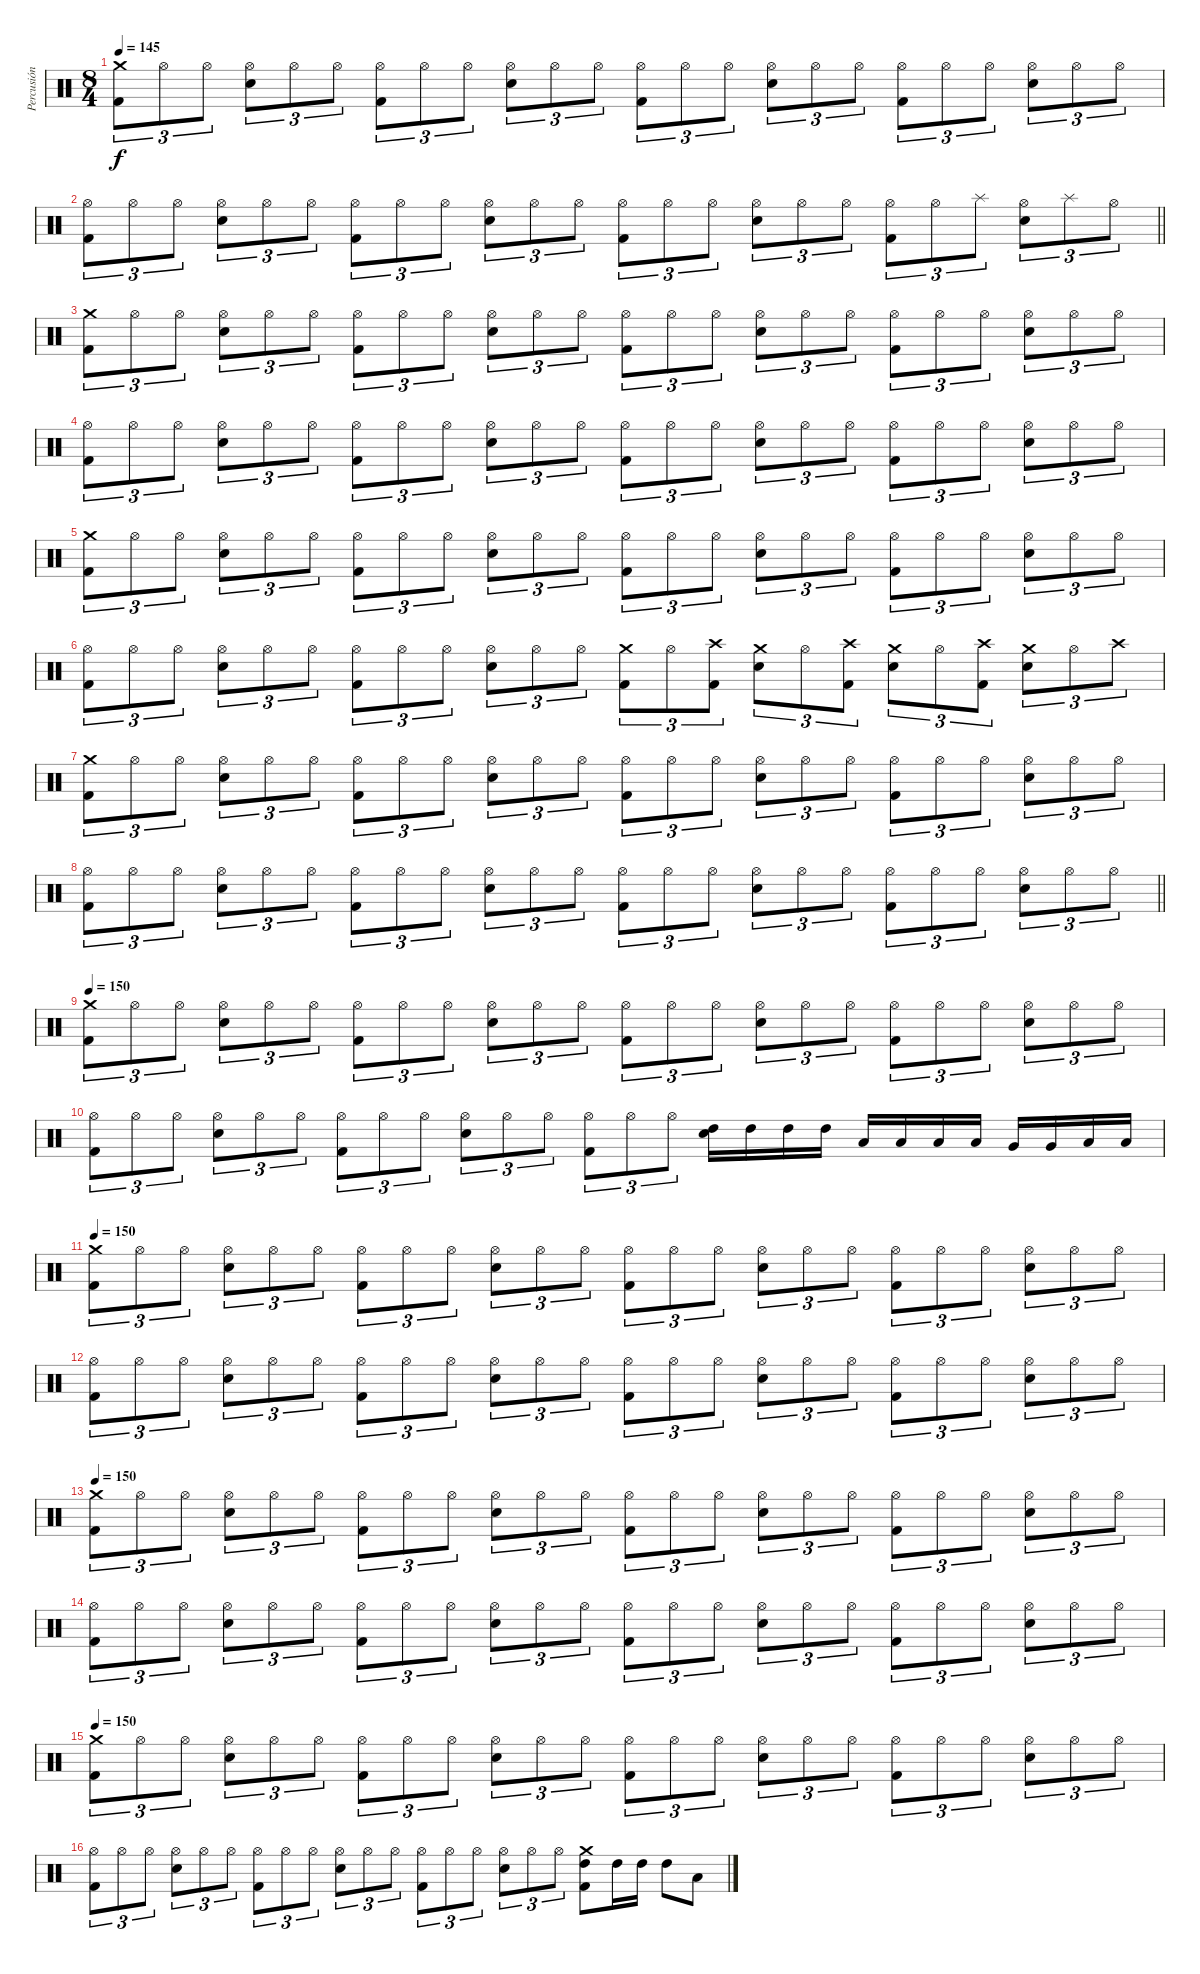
\track ("Percusión" "Percusión") {instrument percussion}
\staff {score}
\articulation defaults
\ts (8 4)
\tempo 145
\clef neutral
\ks c
("Crash medium (hit)" "Kick (hit) 2").8{tu (3 2) dy f} "Hi-Hat (open)".8{tu (3 2)} "Hi-Hat (open)".8{tu (3 2)} ("Hi-Hat (open)" "Electric Snare (hit)").8{tu (3 2)} "Hi-Hat (open)".8{tu (3 2)} "Hi-Hat (open)".8{tu (3 2)} ("Hi-Hat (open)" "Kick (hit) 2").8{tu (3 2)} "Hi-Hat (open)".8{tu (3 2)} "Hi-Hat (open)".8{tu (3 2)} ("Hi-Hat (open)" "Electric Snare (hit)").8{tu (3 2)} "Hi-Hat (open)".8{tu (3 2)} "Hi-Hat (open)".8{tu (3 2)} ("Hi-Hat (open)" "Kick (hit) 2").8{tu (3 2)} "Hi-Hat (open)".8{tu (3 2)} "Hi-Hat (open)".8{tu (3 2)} ("Hi-Hat (open)" "Electric Snare (hit)").8{tu (3 2)} "Hi-Hat (open)".8{tu (3 2)} "Hi-Hat (open)".8{tu (3 2)} ("Hi-Hat (open)" "Kick (hit) 2").8{tu (3 2)} "Hi-Hat (open)".8{tu (3 2)} "Hi-Hat (open)".8{tu (3 2)} ("Hi-Hat (open)" "Electric Snare (hit)").8{tu (3 2)} "Hi-Hat (open)".8{tu (3 2)} "Hi-Hat (open)".8{tu (3 2)} |
\barLineRight lightlight
("Hi-Hat (open)" "Kick (hit) 2").8{tu (3 2)} "Hi-Hat (open)".8{tu (3 2)} "Hi-Hat (open)".8{tu (3 2)} ("Hi-Hat (open)" "Electric Snare (hit)").8{tu (3 2)} "Hi-Hat (open)".8{tu (3 2)} "Hi-Hat (open)".8{tu (3 2)} ("Hi-Hat (open)" "Kick (hit) 2").8{tu (3 2)} "Hi-Hat (open)".8{tu (3 2)} "Hi-Hat (open)".8{tu (3 2)} ("Hi-Hat (open)" "Electric Snare (hit)").8{tu (3 2)} "Hi-Hat (open)".8{tu (3 2)} "Hi-Hat (open)".8{tu (3 2)} ("Hi-Hat (open)" "Kick (hit) 2").8{tu (3 2)} "Hi-Hat (open)".8{tu (3 2)} "Hi-Hat (open)".8{tu (3 2)} ("Hi-Hat (open)" "Electric Snare (hit)").8{tu (3 2)} "Hi-Hat (open)".8{tu (3 2)} "Hi-Hat (open)".8{tu (3 2)} ("Hi-Hat (open)" "Kick (hit) 2").8{tu (3 2)} "Hi-Hat (open)".8{tu (3 2)} "Splash (hit)".8{tu (3 2)} ("Hi-Hat (open)" "Electric Snare (hit)").8{tu (3 2)} "Splash (hit)".8{tu (3 2)} "Hi-Hat (open)".8{tu (3 2)} |
("Crash medium (hit)" "Kick (hit) 2").8{tu (3 2)} "Hi-Hat (open)".8{tu (3 2)} "Hi-Hat (open)".8{tu (3 2)} ("Hi-Hat (open)" "Electric Snare (hit)").8{tu (3 2)} "Hi-Hat (open)".8{tu (3 2)} "Hi-Hat (open)".8{tu (3 2)} ("Hi-Hat (open)" "Kick (hit) 2").8{tu (3 2)} "Hi-Hat (open)".8{tu (3 2)} "Hi-Hat (open)".8{tu (3 2)} ("Hi-Hat (open)" "Electric Snare (hit)").8{tu (3 2)} "Hi-Hat (open)".8{tu (3 2)} "Hi-Hat (open)".8{tu (3 2)} ("Hi-Hat (open)" "Kick (hit) 2").8{tu (3 2)} "Hi-Hat (open)".8{tu (3 2)} "Hi-Hat (open)".8{tu (3 2)} ("Hi-Hat (open)" "Electric Snare (hit)").8{tu (3 2)} "Hi-Hat (open)".8{tu (3 2)} "Hi-Hat (open)".8{tu (3 2)} ("Hi-Hat (open)" "Kick (hit) 2").8{tu (3 2)} "Hi-Hat (open)".8{tu (3 2)} "Hi-Hat (open)".8{tu (3 2)} ("Hi-Hat (open)" "Electric Snare (hit)").8{tu (3 2)} "Hi-Hat (open)".8{tu (3 2)} "Hi-Hat (open)".8{tu (3 2)} |
("Hi-Hat (open)" "Kick (hit) 2").8{tu (3 2)} "Hi-Hat (open)".8{tu (3 2)} "Hi-Hat (open)".8{tu (3 2)} ("Hi-Hat (open)" "Electric Snare (hit)").8{tu (3 2)} "Hi-Hat (open)".8{tu (3 2)} "Hi-Hat (open)".8{tu (3 2)} ("Hi-Hat (open)" "Kick (hit) 2").8{tu (3 2)} "Hi-Hat (open)".8{tu (3 2)} "Hi-Hat (open)".8{tu (3 2)} ("Hi-Hat (open)" "Electric Snare (hit)").8{tu (3 2)} "Hi-Hat (open)".8{tu (3 2)} "Hi-Hat (open)".8{tu (3 2)} ("Hi-Hat (open)" "Kick (hit) 2").8{tu (3 2)} "Hi-Hat (open)".8{tu (3 2)} "Hi-Hat (open)".8{tu (3 2)} ("Hi-Hat (open)" "Electric Snare (hit)").8{tu (3 2)} "Hi-Hat (open)".8{tu (3 2)} "Hi-Hat (open)".8{tu (3 2)} ("Hi-Hat (open)" "Kick (hit) 2").8{tu (3 2)} "Hi-Hat (open)".8{tu (3 2)} "Hi-Hat (open)".8{tu (3 2)} ("Hi-Hat (open)" "Electric Snare (hit)").8{tu (3 2)} "Hi-Hat (open)".8{tu (3 2)} "Hi-Hat (open)".8{tu (3 2)} |
("Crash medium (hit)" "Kick (hit) 2").8{tu (3 2)} "Hi-Hat (open)".8{tu (3 2)} "Hi-Hat (open)".8{tu (3 2)} ("Hi-Hat (open)" "Electric Snare (hit)").8{tu (3 2)} "Hi-Hat (open)".8{tu (3 2)} "Hi-Hat (open)".8{tu (3 2)} ("Hi-Hat (open)" "Kick (hit) 2").8{tu (3 2)} "Hi-Hat (open)".8{tu (3 2)} "Hi-Hat (open)".8{tu (3 2)} ("Hi-Hat (open)" "Electric Snare (hit)").8{tu (3 2)} "Hi-Hat (open)".8{tu (3 2)} "Hi-Hat (open)".8{tu (3 2)} ("Hi-Hat (open)" "Kick (hit) 2").8{tu (3 2)} "Hi-Hat (open)".8{tu (3 2)} "Hi-Hat (open)".8{tu (3 2)} ("Hi-Hat (open)" "Electric Snare (hit)").8{tu (3 2)} "Hi-Hat (open)".8{tu (3 2)} "Hi-Hat (open)".8{tu (3 2)} ("Hi-Hat (open)" "Kick (hit) 2").8{tu (3 2)} "Hi-Hat (open)".8{tu (3 2)} "Hi-Hat (open)".8{tu (3 2)} ("Hi-Hat (open)" "Electric Snare (hit)").8{tu (3 2)} "Hi-Hat (open)".8{tu (3 2)} "Hi-Hat (open)".8{tu (3 2)} |
("Hi-Hat (open)" "Kick (hit) 2").8{tu (3 2)} "Hi-Hat (open)".8{tu (3 2)} "Hi-Hat (open)".8{tu (3 2)} ("Hi-Hat (open)" "Electric Snare (hit)").8{tu (3 2)} "Hi-Hat (open)".8{tu (3 2)} "Hi-Hat (open)".8{tu (3 2)} ("Hi-Hat (open)" "Kick (hit) 2").8{tu (3 2)} "Hi-Hat (open)".8{tu (3 2)} "Hi-Hat (open)".8{tu (3 2)} ("Hi-Hat (open)" "Electric Snare (hit)").8{tu (3 2)} "Hi-Hat (open)".8{tu (3 2)} "Hi-Hat (open)".8{tu (3 2)} ("Crash medium (hit)" "Kick (hit) 2").8{tu (3 2)} "Hi-Hat (open)".8{tu (3 2)} ("Crash high (hit)" "Kick (hit) 2").8{tu (3 2)} ("Crash medium (hit)" "Electric Snare (hit)").8{tu (3 2)} "Hi-Hat (open)".8{tu (3 2)} ("Crash high (hit)" "Kick (hit) 2").8{tu (3 2)} ("Crash medium (hit)" "Electric Snare (hit)").8{tu (3 2)} "Hi-Hat (open)".8{tu (3 2)} ("Crash high (hit)" "Kick (hit) 2").8{tu (3 2)} ("Crash medium (hit)" "Electric Snare (hit)").8{tu (3 2)} "Hi-Hat (open)".8{tu (3 2)} "Crash high (hit)".8{tu (3 2)} |
("Crash medium (hit)" "Kick (hit) 2").8{tu (3 2)} "Hi-Hat (open)".8{tu (3 2)} "Hi-Hat (open)".8{tu (3 2)} ("Hi-Hat (open)" "Electric Snare (hit)").8{tu (3 2)} "Hi-Hat (open)".8{tu (3 2)} "Hi-Hat (open)".8{tu (3 2)} ("Hi-Hat (open)" "Kick (hit) 2").8{tu (3 2)} "Hi-Hat (open)".8{tu (3 2)} "Hi-Hat (open)".8{tu (3 2)} ("Hi-Hat (open)" "Electric Snare (hit)").8{tu (3 2)} "Hi-Hat (open)".8{tu (3 2)} "Hi-Hat (open)".8{tu (3 2)} ("Hi-Hat (open)" "Kick (hit) 2").8{tu (3 2)} "Hi-Hat (open)".8{tu (3 2)} "Hi-Hat (open)".8{tu (3 2)} ("Hi-Hat (open)" "Electric Snare (hit)").8{tu (3 2)} "Hi-Hat (open)".8{tu (3 2)} "Hi-Hat (open)".8{tu (3 2)} ("Hi-Hat (open)" "Kick (hit) 2").8{tu (3 2)} "Hi-Hat (open)".8{tu (3 2)} "Hi-Hat (open)".8{tu (3 2)} ("Hi-Hat (open)" "Electric Snare (hit)").8{tu (3 2)} "Hi-Hat (open)".8{tu (3 2)} "Hi-Hat (open)".8{tu (3 2)} |
\barLineRight lightlight
("Hi-Hat (open)" "Kick (hit) 2").8{tu (3 2)} "Hi-Hat (open)".8{tu (3 2)} "Hi-Hat (open)".8{tu (3 2)} ("Hi-Hat (open)" "Electric Snare (hit)").8{tu (3 2)} "Hi-Hat (open)".8{tu (3 2)} "Hi-Hat (open)".8{tu (3 2)} ("Hi-Hat (open)" "Kick (hit) 2").8{tu (3 2)} "Hi-Hat (open)".8{tu (3 2)} "Hi-Hat (open)".8{tu (3 2)} ("Hi-Hat (open)" "Electric Snare (hit)").8{tu (3 2)} "Hi-Hat (open)".8{tu (3 2)} "Hi-Hat (open)".8{tu (3 2)} ("Hi-Hat (open)" "Kick (hit) 2").8{tu (3 2)} "Hi-Hat (open)".8{tu (3 2)} "Hi-Hat (open)".8{tu (3 2)} ("Hi-Hat (open)" "Electric Snare (hit)").8{tu (3 2)} "Hi-Hat (open)".8{tu (3 2)} "Hi-Hat (open)".8{tu (3 2)} ("Hi-Hat (open)" "Kick (hit) 2").8{tu (3 2)} "Hi-Hat (open)".8{tu (3 2)} "Hi-Hat (open)".8{tu (3 2)} ("Hi-Hat (open)" "Electric Snare (hit)").8{tu (3 2)} "Hi-Hat (open)".8{tu (3 2)} "Hi-Hat (open)".8{tu (3 2)} |
\tempo 150
("Crash medium (hit)" "Kick (hit) 2").8{tu (3 2)} "Hi-Hat (open)".8{tu (3 2)} "Hi-Hat (open)".8{tu (3 2)} ("Hi-Hat (open)" "Electric Snare (hit)").8{tu (3 2)} "Hi-Hat (open)".8{tu (3 2)} "Hi-Hat (open)".8{tu (3 2)} ("Hi-Hat (open)" "Kick (hit) 2").8{tu (3 2)} "Hi-Hat (open)".8{tu (3 2)} "Hi-Hat (open)".8{tu (3 2)} ("Hi-Hat (open)" "Electric Snare (hit)").8{tu (3 2)} "Hi-Hat (open)".8{tu (3 2)} "Hi-Hat (open)".8{tu (3 2)} ("Hi-Hat (open)" "Kick (hit) 2").8{tu (3 2)} "Hi-Hat (open)".8{tu (3 2)} "Hi-Hat (open)".8{tu (3 2)} ("Hi-Hat (open)" "Electric Snare (hit)").8{tu (3 2)} "Hi-Hat (open)".8{tu (3 2)} "Hi-Hat (open)".8{tu (3 2)} ("Hi-Hat (open)" "Kick (hit) 2").8{tu (3 2)} "Hi-Hat (open)".8{tu (3 2)} "Hi-Hat (open)".8{tu (3 2)} ("Hi-Hat (open)" "Electric Snare (hit)").8{tu (3 2)} "Hi-Hat (open)".8{tu (3 2)} "Hi-Hat (open)".8{tu (3 2)} |
("Hi-Hat (open)" "Kick (hit) 2").8{tu (3 2)} "Hi-Hat (open)".8{tu (3 2)} "Hi-Hat (open)".8{tu (3 2)} ("Hi-Hat (open)" "Electric Snare (hit)").8{tu (3 2)} "Hi-Hat (open)".8{tu (3 2)} "Hi-Hat (open)".8{tu (3 2)} ("Hi-Hat (open)" "Kick (hit) 2").8{tu (3 2)} "Hi-Hat (open)".8{tu (3 2)} "Hi-Hat (open)".8{tu (3 2)} ("Hi-Hat (open)" "Electric Snare (hit)").8{tu (3 2)} "Hi-Hat (open)".8{tu (3 2)} "Hi-Hat (open)".8{tu (3 2)} ("Hi-Hat (open)" "Kick (hit) 2").8{tu (3 2)} "Hi-Hat (open)".8{tu (3 2)} "Hi-Hat (open)".8{tu (3 2)} ("High Tom (hit)" "Electric Snare (hit)").16 "High Tom (hit)".16 "High Tom (hit)".16 "High Tom (hit)".16 "Low Tom (hit)".16 "Low Tom (hit)".16 "Low Tom (hit)".16 "Low Tom (hit)".16 "Very Low Tom (hit)".16 "Very Low Tom (hit)".16 "Low Floor Tom (hit)".16 "Low Floor Tom (hit)".16 |
\tempo 150
("Crash medium (hit)" "Kick (hit) 2").8{tu (3 2)} "Hi-Hat (open)".8{tu (3 2)} "Hi-Hat (open)".8{tu (3 2)} ("Hi-Hat (open)" "Electric Snare (hit)").8{tu (3 2)} "Hi-Hat (open)".8{tu (3 2)} "Hi-Hat (open)".8{tu (3 2)} ("Hi-Hat (open)" "Kick (hit) 2").8{tu (3 2)} "Hi-Hat (open)".8{tu (3 2)} "Hi-Hat (open)".8{tu (3 2)} ("Hi-Hat (open)" "Electric Snare (hit)").8{tu (3 2)} "Hi-Hat (open)".8{tu (3 2)} "Hi-Hat (open)".8{tu (3 2)} ("Hi-Hat (open)" "Kick (hit) 2").8{tu (3 2)} "Hi-Hat (open)".8{tu (3 2)} "Hi-Hat (open)".8{tu (3 2)} ("Hi-Hat (open)" "Electric Snare (hit)").8{tu (3 2)} "Hi-Hat (open)".8{tu (3 2)} "Hi-Hat (open)".8{tu (3 2)} ("Hi-Hat (open)" "Kick (hit) 2").8{tu (3 2)} "Hi-Hat (open)".8{tu (3 2)} "Hi-Hat (open)".8{tu (3 2)} ("Hi-Hat (open)" "Electric Snare (hit)").8{tu (3 2)} "Hi-Hat (open)".8{tu (3 2)} "Hi-Hat (open)".8{tu (3 2)} |
("Hi-Hat (open)" "Kick (hit) 2").8{tu (3 2)} "Hi-Hat (open)".8{tu (3 2)} "Hi-Hat (open)".8{tu (3 2)} ("Hi-Hat (open)" "Electric Snare (hit)").8{tu (3 2)} "Hi-Hat (open)".8{tu (3 2)} "Hi-Hat (open)".8{tu (3 2)} ("Hi-Hat (open)" "Kick (hit) 2").8{tu (3 2)} "Hi-Hat (open)".8{tu (3 2)} "Hi-Hat (open)".8{tu (3 2)} ("Hi-Hat (open)" "Electric Snare (hit)").8{tu (3 2)} "Hi-Hat (open)".8{tu (3 2)} "Hi-Hat (open)".8{tu (3 2)} ("Hi-Hat (open)" "Kick (hit) 2").8{tu (3 2)} "Hi-Hat (open)".8{tu (3 2)} "Hi-Hat (open)".8{tu (3 2)} ("Hi-Hat (open)" "Electric Snare (hit)").8{tu (3 2)} "Hi-Hat (open)".8{tu (3 2)} "Hi-Hat (open)".8{tu (3 2)} ("Hi-Hat (open)" "Kick (hit) 2").8{tu (3 2)} "Hi-Hat (open)".8{tu (3 2)} "Hi-Hat (open)".8{tu (3 2)} ("Hi-Hat (open)" "Electric Snare (hit)").8{tu (3 2)} "Hi-Hat (open)".8{tu (3 2)} "Hi-Hat (open)".8{tu (3 2)} |
\tempo 150
("Crash medium (hit)" "Kick (hit) 2").8{tu (3 2)} "Hi-Hat (open)".8{tu (3 2)} "Hi-Hat (open)".8{tu (3 2)} ("Hi-Hat (open)" "Electric Snare (hit)").8{tu (3 2)} "Hi-Hat (open)".8{tu (3 2)} "Hi-Hat (open)".8{tu (3 2)} ("Hi-Hat (open)" "Kick (hit) 2").8{tu (3 2)} "Hi-Hat (open)".8{tu (3 2)} "Hi-Hat (open)".8{tu (3 2)} ("Hi-Hat (open)" "Electric Snare (hit)").8{tu (3 2)} "Hi-Hat (open)".8{tu (3 2)} "Hi-Hat (open)".8{tu (3 2)} ("Hi-Hat (open)" "Kick (hit) 2").8{tu (3 2)} "Hi-Hat (open)".8{tu (3 2)} "Hi-Hat (open)".8{tu (3 2)} ("Hi-Hat (open)" "Electric Snare (hit)").8{tu (3 2)} "Hi-Hat (open)".8{tu (3 2)} "Hi-Hat (open)".8{tu (3 2)} ("Hi-Hat (open)" "Kick (hit) 2").8{tu (3 2)} "Hi-Hat (open)".8{tu (3 2)} "Hi-Hat (open)".8{tu (3 2)} ("Hi-Hat (open)" "Electric Snare (hit)").8{tu (3 2)} "Hi-Hat (open)".8{tu (3 2)} "Hi-Hat (open)".8{tu (3 2)} |
("Hi-Hat (open)" "Kick (hit) 2").8{tu (3 2)} "Hi-Hat (open)".8{tu (3 2)} "Hi-Hat (open)".8{tu (3 2)} ("Hi-Hat (open)" "Electric Snare (hit)").8{tu (3 2)} "Hi-Hat (open)".8{tu (3 2)} "Hi-Hat (open)".8{tu (3 2)} ("Hi-Hat (open)" "Kick (hit) 2").8{tu (3 2)} "Hi-Hat (open)".8{tu (3 2)} "Hi-Hat (open)".8{tu (3 2)} ("Hi-Hat (open)" "Electric Snare (hit)").8{tu (3 2)} "Hi-Hat (open)".8{tu (3 2)} "Hi-Hat (open)".8{tu (3 2)} ("Hi-Hat (open)" "Kick (hit) 2").8{tu (3 2)} "Hi-Hat (open)".8{tu (3 2)} "Hi-Hat (open)".8{tu (3 2)} ("Hi-Hat (open)" "Electric Snare (hit)").8{tu (3 2)} "Hi-Hat (open)".8{tu (3 2)} "Hi-Hat (open)".8{tu (3 2)} ("Hi-Hat (open)" "Kick (hit) 2").8{tu (3 2)} "Hi-Hat (open)".8{tu (3 2)} "Hi-Hat (open)".8{tu (3 2)} ("Hi-Hat (open)" "Electric Snare (hit)").8{tu (3 2)} "Hi-Hat (open)".8{tu (3 2)} "Hi-Hat (open)".8{tu (3 2)} |
\tempo 150
("Crash medium (hit)" "Kick (hit) 2").8{tu (3 2)} "Hi-Hat (open)".8{tu (3 2)} "Hi-Hat (open)".8{tu (3 2)} ("Hi-Hat (open)" "Electric Snare (hit)").8{tu (3 2)} "Hi-Hat (open)".8{tu (3 2)} "Hi-Hat (open)".8{tu (3 2)} ("Hi-Hat (open)" "Kick (hit) 2").8{tu (3 2)} "Hi-Hat (open)".8{tu (3 2)} "Hi-Hat (open)".8{tu (3 2)} ("Hi-Hat (open)" "Electric Snare (hit)").8{tu (3 2)} "Hi-Hat (open)".8{tu (3 2)} "Hi-Hat (open)".8{tu (3 2)} ("Hi-Hat (open)" "Kick (hit) 2").8{tu (3 2)} "Hi-Hat (open)".8{tu (3 2)} "Hi-Hat (open)".8{tu (3 2)} ("Hi-Hat (open)" "Electric Snare (hit)").8{tu (3 2)} "Hi-Hat (open)".8{tu (3 2)} "Hi-Hat (open)".8{tu (3 2)} ("Hi-Hat (open)" "Kick (hit) 2").8{tu (3 2)} "Hi-Hat (open)".8{tu (3 2)} "Hi-Hat (open)".8{tu (3 2)} ("Hi-Hat (open)" "Electric Snare (hit)").8{tu (3 2)} "Hi-Hat (open)".8{tu (3 2)} "Hi-Hat (open)".8{tu (3 2)} |
("Hi-Hat (open)" "Kick (hit) 2").8{tu (3 2)} "Hi-Hat (open)".8{tu (3 2)} "Hi-Hat (open)".8{tu (3 2)} ("Hi-Hat (open)" "Electric Snare (hit)").8{tu (3 2)} "Hi-Hat (open)".8{tu (3 2)} "Hi-Hat (open)".8{tu (3 2)} ("Hi-Hat (open)" "Kick (hit) 2").8{tu (3 2)} "Hi-Hat (open)".8{tu (3 2)} "Hi-Hat (open)".8{tu (3 2)} ("Hi-Hat (open)" "Electric Snare (hit)").8{tu (3 2)} "Hi-Hat (open)".8{tu (3 2)} "Hi-Hat (open)".8{tu (3 2)} ("Hi-Hat (open)" "Kick (hit) 2").8{tu (3 2)} "Hi-Hat (open)".8{tu (3 2)} "Hi-Hat (open)".8{tu (3 2)} ("Hi-Hat (open)" "Electric Snare (hit)").8{tu (3 2)} "Hi-Hat (open)".8{tu (3 2)} "Hi-Hat (open)".8{tu (3 2)} ("Crash medium (hit)" "High Tom (hit)" "Kick (hit) 2").8 "High Tom (hit)".16 "High Tom (hit)".16 "High Tom (hit)".8 "Low Tom (hit)".8
